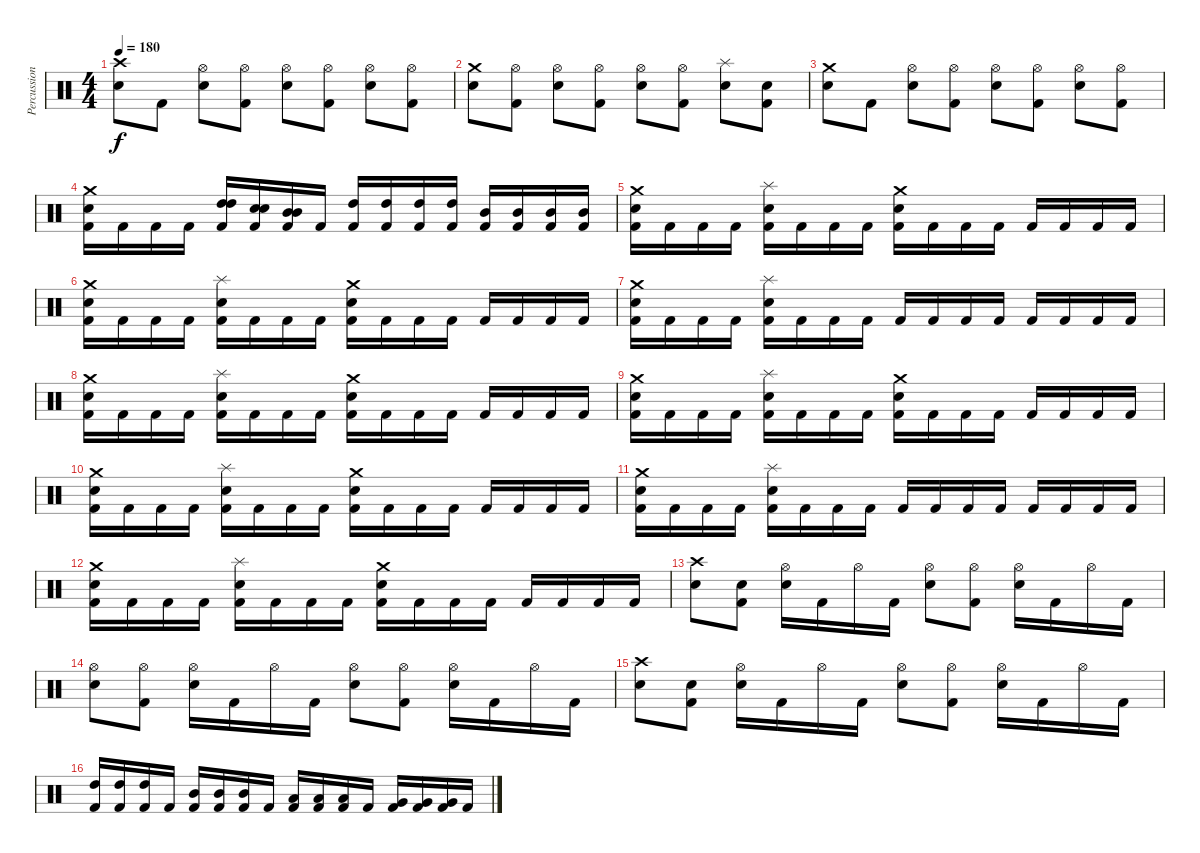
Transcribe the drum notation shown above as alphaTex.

\track ("Percussion" "Percussion") {instrument percussion}
\staff {score}
\articulation defaults
\ts (4 4)
\tempo 180
\clef neutral
\ks c
("Crash high (hit)" "Snare (hit) 2").8{dy f} "Kick (hit) 2".8 ("Hi-Hat (open)" "Snare (hit) 2").8 ("Hi-Hat (open)" "Kick (hit) 2").8 ("Hi-Hat (open)" "Snare (hit) 2").8 ("Hi-Hat (open)" "Kick (hit) 2").8 ("Hi-Hat (open)" "Snare (hit) 2").8 ("Hi-Hat (open)" "Kick (hit) 2").8 |
("Crash medium (hit)" "Snare (hit) 2").8 ("Hi-Hat (open)" "Kick (hit) 2").8 ("Hi-Hat (open)" "Snare (hit) 2").8 ("Hi-Hat (open)" "Kick (hit) 2").8 ("Hi-Hat (open)" "Snare (hit) 2").8 ("Hi-Hat (open)" "Kick (hit) 2").8 ("Splash (hit)" "Snare (hit) 2").8 ("Snare (hit)" "Kick (hit) 2").8 |
("Crash medium (hit)" "Snare (hit) 2").8 "Kick (hit) 2".8 ("Hi-Hat (open)" "Snare (hit) 2").8 ("Hi-Hat (open)" "Kick (hit) 2").8 ("Hi-Hat (open)" "Snare (hit) 2").8 ("Hi-Hat (open)" "Kick (hit) 2").8 ("Hi-Hat (open)" "Snare (hit) 2").8 ("Hi-Hat (open)" "Kick (hit) 2").8 |
("Crash medium (hit)" "Snare (hit) 2" "Kick (hit) 2").16 "Kick (hit) 2".16 "Kick (hit) 2".16 "Kick (hit) 2".16 ("High Tom (hit)" "High Tom (hit)" "Kick (hit) 2").16 ("Snare (hit)" "Snare (hit)" "Kick (hit) 2").16 ("Mid Tom (hit)" "Mid Tom (hit)" "Kick (hit) 2").16 "Kick (hit) 2".16 ("High Tom (hit)" "Kick (hit) 2").16 ("High Tom (hit)" "Kick (hit) 2").16 ("High Tom (hit)" "Kick (hit) 2").16 ("High Tom (hit)" "Kick (hit) 2").16 ("Mid Tom (hit)" "Kick (hit) 2").16 ("Mid Tom (hit)" "Kick (hit) 2").16 ("Mid Tom (hit)" "Kick (hit) 2").16 ("Mid Tom (hit)" "Kick (hit) 2").16 |
("Crash medium (hit)" "Snare (hit) 2" "Kick (hit) 2").16 "Kick (hit) 2".16 "Kick (hit) 2".16 "Kick (hit) 2".16 ("Splash (hit)" "Snare (hit) 2" "Kick (hit) 2").16 "Kick (hit) 2".16 "Kick (hit) 2".16 "Kick (hit) 2".16 ("Crash medium (hit)" "Snare (hit) 2" "Kick (hit) 2").16 "Kick (hit) 2".16 "Kick (hit) 2".16 "Kick (hit) 2".16 "Kick (hit) 2".16 "Kick (hit) 2".16 "Kick (hit) 2".16 "Kick (hit) 2".16 |
("Crash medium (hit)" "Snare (hit) 2" "Kick (hit) 2").16 "Kick (hit) 2".16 "Kick (hit) 2".16 "Kick (hit) 2".16 ("Splash (hit)" "Snare (hit) 2" "Kick (hit) 2").16 "Kick (hit) 2".16 "Kick (hit) 2".16 "Kick (hit) 2".16 ("Crash medium (hit)" "Snare (hit) 2" "Kick (hit) 2").16 "Kick (hit) 2".16 "Kick (hit) 2".16 "Kick (hit) 2".16 "Kick (hit) 2".16 "Kick (hit) 2".16 "Kick (hit) 2".16 "Kick (hit) 2".16 |
("Crash medium (hit)" "Snare (hit) 2" "Kick (hit) 2").16 "Kick (hit) 2".16 "Kick (hit) 2".16 "Kick (hit) 2".16 ("Splash (hit)" "Snare (hit) 2" "Kick (hit) 2").16 "Kick (hit) 2".16 "Kick (hit) 2".16 "Kick (hit) 2".16 "Kick (hit) 2".16 "Kick (hit) 2".16 "Kick (hit) 2".16 "Kick (hit) 2".16 "Kick (hit) 2".16 "Kick (hit) 2".16 "Kick (hit) 2".16 "Kick (hit) 2".16 |
("Crash medium (hit)" "Snare (hit) 2" "Kick (hit) 2").16 "Kick (hit) 2".16 "Kick (hit) 2".16 "Kick (hit) 2".16 ("Splash (hit)" "Snare (hit) 2" "Kick (hit) 2").16 "Kick (hit) 2".16 "Kick (hit) 2".16 "Kick (hit) 2".16 ("Crash medium (hit)" "Snare (hit) 2" "Kick (hit) 2").16 "Kick (hit) 2".16 "Kick (hit) 2".16 "Kick (hit) 2".16 "Kick (hit) 2".16 "Kick (hit) 2".16 "Kick (hit) 2".16 "Kick (hit) 2".16 |
("Crash medium (hit)" "Snare (hit) 2" "Kick (hit) 2").16 "Kick (hit) 2".16 "Kick (hit) 2".16 "Kick (hit) 2".16 ("Splash (hit)" "Snare (hit) 2" "Kick (hit) 2").16 "Kick (hit) 2".16 "Kick (hit) 2".16 "Kick (hit) 2".16 ("Crash medium (hit)" "Snare (hit) 2" "Kick (hit) 2").16 "Kick (hit) 2".16 "Kick (hit) 2".16 "Kick (hit) 2".16 "Kick (hit) 2".16 "Kick (hit) 2".16 "Kick (hit) 2".16 "Kick (hit) 2".16 |
("Crash medium (hit)" "Snare (hit) 2" "Kick (hit) 2").16 "Kick (hit) 2".16 "Kick (hit) 2".16 "Kick (hit) 2".16 ("Splash (hit)" "Snare (hit) 2" "Kick (hit) 2").16 "Kick (hit) 2".16 "Kick (hit) 2".16 "Kick (hit) 2".16 ("Crash medium (hit)" "Snare (hit) 2" "Kick (hit) 2").16 "Kick (hit) 2".16 "Kick (hit) 2".16 "Kick (hit) 2".16 "Kick (hit) 2".16 "Kick (hit) 2".16 "Kick (hit) 2".16 "Kick (hit) 2".16 |
("Crash medium (hit)" "Snare (hit) 2" "Kick (hit) 2").16 "Kick (hit) 2".16 "Kick (hit) 2".16 "Kick (hit) 2".16 ("Splash (hit)" "Snare (hit) 2" "Kick (hit) 2").16 "Kick (hit) 2".16 "Kick (hit) 2".16 "Kick (hit) 2".16 "Kick (hit) 2".16 "Kick (hit) 2".16 "Kick (hit) 2".16 "Kick (hit) 2".16 "Kick (hit) 2".16 "Kick (hit) 2".16 "Kick (hit) 2".16 "Kick (hit) 2".16 |
("Crash medium (hit)" "Snare (hit) 2" "Kick (hit) 2").16 "Kick (hit) 2".16 "Kick (hit) 2".16 "Kick (hit) 2".16 ("Splash (hit)" "Snare (hit) 2" "Kick (hit) 2").16 "Kick (hit) 2".16 "Kick (hit) 2".16 "Kick (hit) 2".16 ("Crash medium (hit)" "Snare (hit) 2" "Kick (hit) 2").16 "Kick (hit) 2".16 "Kick (hit) 2".16 "Kick (hit) 2".16 "Kick (hit) 2".16 "Kick (hit) 2".16 "Kick (hit) 2".16 "Kick (hit) 2".16 |
("Crash high (hit)" "Snare (hit) 2").8 ("Snare (hit)" "Kick (hit) 2").8 ("Hi-Hat (open)" "Snare (hit) 2").16 "Kick (hit) 2".16 "Hi-Hat (open)".16 "Kick (hit) 2".16 ("Hi-Hat (open)" "Snare (hit) 2").8 ("Hi-Hat (open)" "Kick (hit) 2").8 ("Hi-Hat (open)" "Snare (hit) 2").16 "Kick (hit) 2".16 "Hi-Hat (open)".16 "Kick (hit) 2".16 |
("Hi-Hat (open)" "Snare (hit) 2").8 ("Hi-Hat (open)" "Kick (hit) 2").8 ("Hi-Hat (open)" "Snare (hit) 2").16 "Kick (hit) 2".16 "Hi-Hat (open)".16 "Kick (hit) 2".16 ("Hi-Hat (open)" "Snare (hit) 2").8 ("Hi-Hat (open)" "Kick (hit) 2").8 ("Hi-Hat (open)" "Snare (hit) 2").16 "Kick (hit) 2".16 "Hi-Hat (open)".16 "Kick (hit) 2".16 |
("Crash high (hit)" "Snare (hit) 2").8 ("Snare (hit)" "Kick (hit) 2").8 ("Hi-Hat (open)" "Snare (hit) 2").16 "Kick (hit) 2".16 "Hi-Hat (open)".16 "Kick (hit) 2".16 ("Hi-Hat (open)" "Snare (hit) 2").8 ("Hi-Hat (open)" "Kick (hit) 2").8 ("Hi-Hat (open)" "Snare (hit) 2").16 "Kick (hit) 2".16 "Hi-Hat (open)".16 "Kick (hit) 2".16 |
("High Tom (hit)" "Kick (hit) 2").16 ("High Tom (hit)" "Kick (hit) 2").16 ("High Tom (hit)" "Kick (hit) 2").16 "Kick (hit) 2".16 ("Mid Tom (hit)" "Kick (hit) 2").16 ("Mid Tom (hit)" "Kick (hit) 2").16 ("Mid Tom (hit)" "Kick (hit) 2").16 "Kick (hit) 2".16 ("Low Tom (hit)" "Kick (hit) 2").16 ("Low Tom (hit)" "Kick (hit) 2").16 ("Low Tom (hit)" "Kick (hit) 2").16 "Kick (hit) 2".16 ("Very Low Tom (hit)" "Kick (hit) 2").16 ("Very Low Tom (hit)" "Kick (hit) 2").16 ("Very Low Tom (hit)" "Kick (hit) 2").16 "Kick (hit) 2".16
